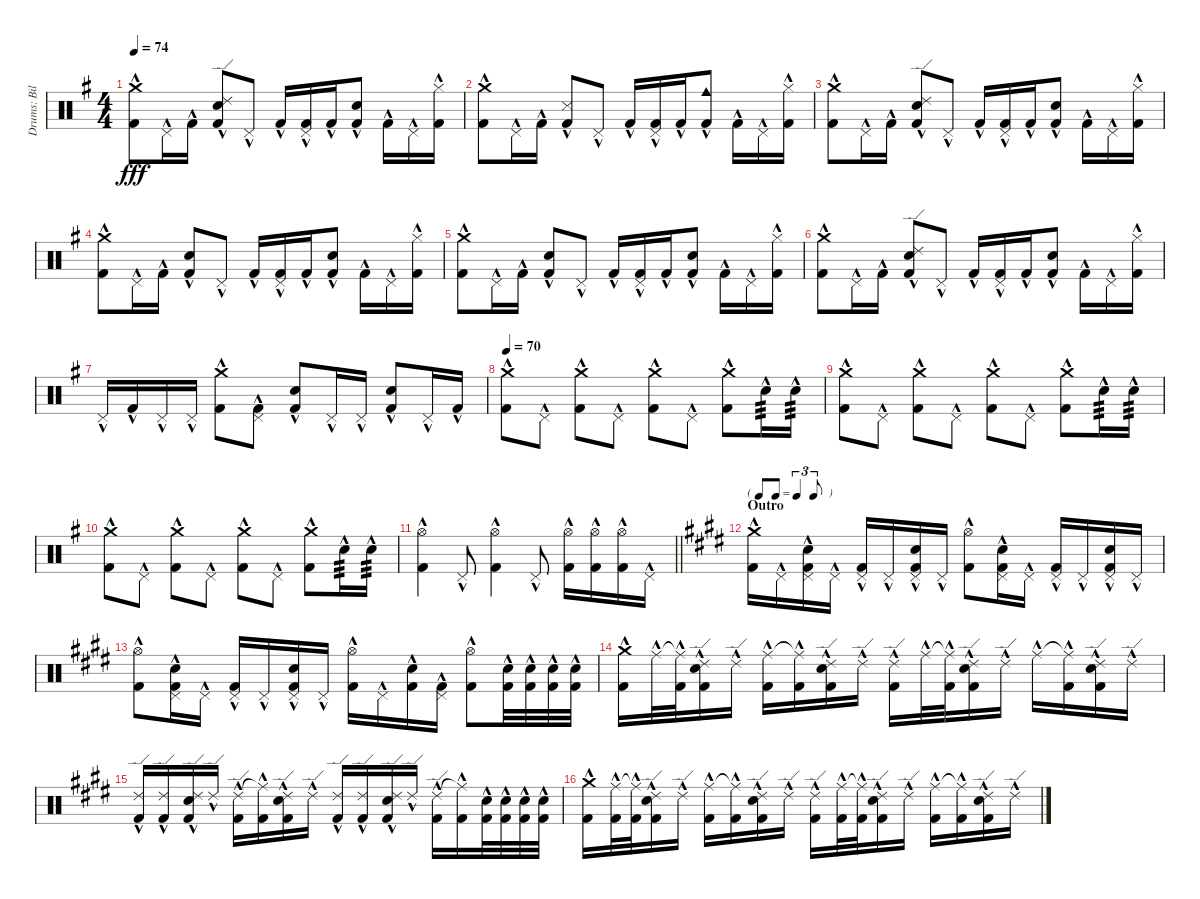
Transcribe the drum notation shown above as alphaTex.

\track ("Drums: Bill" "Drums: Bil") {instrument percussion}
\staff {score}
\articulation defaults
\ts (4 4)
\tempo 74
\clef neutral
\ks g
("Crash medium (hit)"{hac} "Kick (hit) 2"{hac}).8{dy fff} "Pedal Hi-Hat (hit)"{hac}.16 "Kick (hit) 2"{hac}.16 ("Ride (edge) 2" "Snare (hit) 2"{hac} "Kick (hit) 2"{hac}).8 "Pedal Hi-Hat (hit)"{hac}.8 "Kick (hit) 2"{hac}.16 ("Pedal Hi-Hat (hit)"{hac} "Kick (hit) 2"{hac}).16 "Kick (hit) 2"{hac}.16 ("Snare (hit) 2"{hac} "Kick (hit) 2"{hac}).8 "Kick (hit) 2"{hac}.16 "Pedal Hi-Hat (hit)"{hac}.16 ("Hi-Hat (closed)" "Kick (hit) 2"{hac}).16 |
("Crash medium (hit)"{hac} "Kick (hit) 2"{hac}).8 "Pedal Hi-Hat (hit)"{hac}.16 "Kick (hit) 2"{hac}.16 ("Kick (hit) 2"{hac} "Snare (side stick) 3").8 "Pedal Hi-Hat (hit)"{hac}.8 "Kick (hit) 2"{hac}.16 ("Pedal Hi-Hat (hit)"{hac} "Kick (hit) 2"{hac}).16 "Kick (hit) 2"{hac}.16 ("Kick (hit) 2"{hac} "Cowbell medium (hit)").8 "Kick (hit) 2"{hac}.16 "Pedal Hi-Hat (hit)"{hac}.16 ("Hi-Hat (closed)" "Kick (hit) 2"{hac}).16 |
("Crash medium (hit)"{hac} "Kick (hit) 2"{hac}).8 "Pedal Hi-Hat (hit)"{hac}.16 "Kick (hit) 2"{hac}.16 ("Ride (edge) 2" "Snare (hit) 2"{hac} "Kick (hit) 2"{hac}).8 "Pedal Hi-Hat (hit)"{hac}.8 "Kick (hit) 2"{hac}.16 ("Pedal Hi-Hat (hit)"{hac} "Kick (hit) 2"{hac}).16 "Kick (hit) 2"{hac}.16 ("Snare (hit) 2"{hac} "Kick (hit) 2"{hac}).8 "Kick (hit) 2"{hac}.16 "Pedal Hi-Hat (hit)"{hac}.16 ("Hi-Hat (closed)" "Kick (hit) 2"{hac}).16 |
("Crash medium (hit)"{hac} "Kick (hit) 2"{hac}).8 "Pedal Hi-Hat (hit)"{hac}.16 "Kick (hit) 2"{hac}.16 ("Snare (hit) 2"{hac} "Kick (hit) 2"{hac}).8 "Pedal Hi-Hat (hit)"{hac}.8 "Kick (hit) 2"{hac}.16 ("Pedal Hi-Hat (hit)"{hac} "Kick (hit) 2"{hac}).16 "Kick (hit) 2"{hac}.16 ("Snare (hit) 2"{hac} "Kick (hit) 2"{hac}).8 "Kick (hit) 2"{hac}.16 "Pedal Hi-Hat (hit)"{hac}.16 ("Hi-Hat (closed)" "Kick (hit) 2"{hac}).16 |
("Crash medium (hit)"{hac} "Kick (hit) 2"{hac}).8 "Pedal Hi-Hat (hit)"{hac}.16 "Kick (hit) 2"{hac}.16 ("Snare (hit) 2"{hac} "Kick (hit) 2"{hac}).8 "Pedal Hi-Hat (hit)"{hac}.8 "Kick (hit) 2"{hac}.16 ("Pedal Hi-Hat (hit)"{hac} "Kick (hit) 2"{hac}).16 "Kick (hit) 2"{hac}.16 ("Snare (hit) 2"{hac} "Kick (hit) 2"{hac}).8 "Kick (hit) 2"{hac}.16 "Pedal Hi-Hat (hit)"{hac}.16 ("Hi-Hat (closed)" "Kick (hit) 2"{hac}).16 |
("Crash medium (hit)"{hac} "Kick (hit) 2"{hac}).8 "Pedal Hi-Hat (hit)"{hac}.16 "Kick (hit) 2"{hac}.16 ("Ride (edge) 2" "Snare (hit) 2"{hac} "Kick (hit) 2"{hac}).8 "Pedal Hi-Hat (hit)"{hac}.8 "Kick (hit) 2"{hac}.16 ("Pedal Hi-Hat (hit)"{hac} "Kick (hit) 2"{hac}).16 "Kick (hit) 2"{hac}.16 ("Snare (hit) 2"{hac} "Kick (hit) 2"{hac}).8 "Kick (hit) 2"{hac}.16 "Pedal Hi-Hat (hit)"{hac}.16 ("Hi-Hat (closed)" "Kick (hit) 2"{hac}).16 |
"Pedal Hi-Hat (hit)"{hac}.16 "Kick (hit) 2"{hac}.16 "Pedal Hi-Hat (hit)"{hac}.16 "Pedal Hi-Hat (hit)"{hac}.16 ("Crash medium (hit)"{hac} "Kick (hit) 2"{hac}).8 ("Pedal Hi-Hat (hit)"{hac} "Kick (hit) 2"{hac}).8 ("Snare (hit) 2"{hac} "Kick (hit) 2"{hac}).8 "Pedal Hi-Hat (hit)"{hac}.16 "Pedal Hi-Hat (hit)"{hac}.16 ("Snare (hit) 2"{hac} "Kick (hit) 2"{hac}).8 "Pedal Hi-Hat (hit)"{hac}.16 "Kick (hit) 2"{hac}.16 |
\tempo 70
("Crash medium (hit)"{hac} "Kick (hit) 2"{hac}).8 "Pedal Hi-Hat (hit)"{hac}.8 ("Crash medium (hit)"{hac} "Kick (hit) 2"{hac}).8 "Pedal Hi-Hat (hit)"{hac}.8 ("Crash medium (hit)"{hac} "Kick (hit) 2"{hac}).8 "Pedal Hi-Hat (hit)"{hac}.8 ("Crash medium (hit)"{hac} "Kick (hit) 2"{hac}).8 "Snare (hit) 2"{hac}.16{tp 3} "Snare (hit) 2"{hac}.16{tp 3} |
("Crash medium (hit)"{hac} "Kick (hit) 2"{hac}).8 "Pedal Hi-Hat (hit)"{hac}.8 ("Crash medium (hit)"{hac} "Kick (hit) 2"{hac}).8 "Pedal Hi-Hat (hit)"{hac}.8 ("Crash medium (hit)"{hac} "Kick (hit) 2"{hac}).8 "Pedal Hi-Hat (hit)"{hac}.8 ("Crash medium (hit)"{hac} "Kick (hit) 2"{hac}).8 "Snare (hit) 2"{hac}.16{tp 3} "Snare (hit) 2"{hac}.16{tp 3} |
("Crash medium (hit)"{hac} "Kick (hit) 2"{hac}).8 "Pedal Hi-Hat (hit)"{hac}.8 ("Crash medium (hit)"{hac} "Kick (hit) 2"{hac}).8 "Pedal Hi-Hat (hit)"{hac}.8 ("Crash medium (hit)"{hac} "Kick (hit) 2"{hac}).8 "Pedal Hi-Hat (hit)"{hac}.8 ("Crash medium (hit)"{hac} "Kick (hit) 2"{hac}).8 "Snare (hit) 2"{hac}.16{tp 3} "Snare (hit) 2"{hac}.16{tp 3} |
\barLineRight lightlight
("Hi-Hat (open)"{hac} "Kick (hit) 2"{hac}).4 "Pedal Hi-Hat (hit)"{hac}.8 ("Hi-Hat (open)"{hac} "Kick (hit) 2"{hac}).4 "Pedal Hi-Hat (hit)"{hac}.8 ("Hi-Hat (open)"{hac} "Kick (hit) 2"{hac}).16 ("Hi-Hat (open)"{hac} "Kick (hit) 2"{hac}).16 ("Hi-Hat (open)"{hac} "Kick (hit) 2"{hac}).16 "Pedal Hi-Hat (hit)"{hac}.16 |
\tf triplet8th
\section ("" "Outro")
\ks e
("Crash medium (hit)"{hac} "Kick (hit) 2"{hac}).16 "Pedal Hi-Hat (hit)"{hac}.16 ("Pedal Hi-Hat (hit)"{hac} "Snare (hit) 2"{hac} "Kick (hit) 2"{hac}).16 "Pedal Hi-Hat (hit)"{hac}.16 ("Pedal Hi-Hat (hit)"{hac} "Kick (hit) 2"{hac}).16 "Pedal Hi-Hat (hit)"{hac}.16 ("Pedal Hi-Hat (hit)"{hac} "Snare (hit) 2"{hac} "Kick (hit) 2"{hac}).16 "Pedal Hi-Hat (hit)"{hac}.16 ("Hi-Hat (open)"{hac} "Kick (hit) 2"{hac}).8 ("Pedal Hi-Hat (hit)"{hac} "Snare (hit) 2"{hac} "Kick (hit) 2"{hac}).16 "Pedal Hi-Hat (hit)"{hac}.16 ("Pedal Hi-Hat (hit)"{hac} "Kick (hit) 2"{hac}).16 "Pedal Hi-Hat (hit)"{hac}.16 ("Pedal Hi-Hat (hit)"{hac} "Snare (hit) 2"{hac} "Kick (hit) 2"{hac}).16 "Pedal Hi-Hat (hit)"{hac}.16 |
("Hi-Hat (open)"{hac} "Kick (hit) 2"{hac}).8 ("Pedal Hi-Hat (hit)"{hac} "Snare (hit) 2"{hac} "Kick (hit) 2"{hac}).16 "Pedal Hi-Hat (hit)"{hac}.16 ("Pedal Hi-Hat (hit)"{hac} "Kick (hit) 2"{hac}).16 "Pedal Hi-Hat (hit)"{hac}.16 ("Pedal Hi-Hat (hit)"{hac} "Snare (hit) 2"{hac} "Kick (hit) 2"{hac}).16 "Pedal Hi-Hat (hit)"{hac}.16 ("Hi-Hat (open)"{hac} "Kick (hit) 2"{hac}).16 "Pedal Hi-Hat (hit)"{hac}.16 ("Snare (hit) 2"{hac} "Kick (hit) 2"{hac}).16 ("Pedal Hi-Hat (hit)"{hac} "Kick (hit) 2"{hac}).16 ("Hi-Hat (open)"{hac} "Kick (hit) 2"{hac}).8 ("Snare (hit) 2"{hac} "Kick (hit) 2"{hac}).32 ("Snare (hit) 2"{hac} "Kick (hit) 2"{hac}).32 ("Snare (hit) 2"{hac} "Kick (hit) 2"{hac}).32 ("Snare (hit) 2"{hac} "Kick (hit) 2"{hac}).32 |
("Crash medium (hit)"{hac} "Kick (hit) 2"{hac}).16 "Ride (middle)"{hac}.32 ("Ride (middle)"{t} "Kick (hit) 2"{hac}).32 ("Ride (edge) 2"{hac} "Snare (hit) 2"{hac} "Kick (hit) 2"{hac}).16 "Ride (edge) 2"{hac}.16 ("Ride (middle)"{hac} "Kick (hit) 2"{hac}).16 ("Ride (middle)"{t} "Kick (hit) 2"{hac}).16 ("Ride (edge) 2"{hac} "Snare (hit) 2"{hac} "Kick (hit) 2"{hac}).16 "Ride (edge) 2"{hac}.16 ("Ride (edge) 2"{hac} "Kick (hit) 2"{hac}).16 "Ride (middle)"{hac}.32 ("Ride (middle)"{t} "Kick (hit) 2"{hac}).32 ("Ride (edge) 2"{hac} "Snare (hit) 2"{hac} "Kick (hit) 2"{hac}).16 "Ride (edge) 2"{hac}.16 "Ride (middle)"{hac}.16 ("Ride (middle)"{t} "Kick (hit) 2"{hac}).16 ("Ride (edge) 2"{hac} "Snare (hit) 2"{hac} "Kick (hit) 2"{hac}).16 "Ride (edge) 2"{hac}.16 |
("Ride (edge) 2"{hac} "Kick (hit) 2"{hac}).16 ("Ride (edge) 2"{hac} "Kick (hit) 2"{hac}).16 ("Ride (edge) 2"{hac} "Snare (hit) 2"{hac} "Kick (hit) 2"{hac}).16 "Ride (edge) 2"{hac}.16 ("Ride (edge) 2"{hac} "Kick (hit) 2"{hac}).16 ("Ride (middle)"{t} "Kick (hit) 2"{hac}).16 ("Ride (edge) 2"{hac} "Snare (hit) 2"{hac} "Kick (hit) 2"{hac}).16 "Ride (edge) 2"{hac}.16 ("Ride (edge) 2"{hac} "Kick (hit) 2"{hac}).16 ("Ride (edge) 2"{hac} "Kick (hit) 2"{hac}).16 ("Ride (edge) 2"{hac} "Snare (hit) 2"{hac} "Kick (hit) 2"{hac}).16 "Ride (edge) 2"{hac}.16 ("Ride (edge) 2"{hac} "Kick (hit) 2"{hac}).16 ("Ride (middle)"{t} "Kick (hit) 2"{hac}).16 ("Snare (hit) 2"{hac} "Kick (hit) 2"{hac}).32 ("Snare (hit) 2"{hac} "Kick (hit) 2"{hac}).32 ("Snare (hit) 2"{hac} "Kick (hit) 2"{hac}).32 ("Snare (hit) 2"{hac} "Kick (hit) 2"{hac}).32 |
("Crash medium (hit)"{hac} "Kick (hit) 2"{hac}).16 ("Ride (middle)"{hac} "Kick (hit) 2"{hac}).32 ("Ride (middle)"{t} "Kick (hit) 2"{hac}).32 ("Ride (edge) 2"{hac} "Snare (hit) 2"{hac} "Kick (hit) 2"{hac}).16 "Ride (edge) 2"{hac}.16 ("Ride (middle)"{hac} "Kick (hit) 2"{hac}).16 ("Ride (middle)"{t} "Kick (hit) 2"{hac}).16 ("Ride (edge) 2"{hac} "Snare (hit) 2"{hac} "Kick (hit) 2"{hac}).16 "Ride (edge) 2"{hac}.16 ("Ride (edge) 2"{hac} "Kick (hit) 2"{hac}).16 ("Ride (middle)"{hac} "Kick (hit) 2"{hac}).32 ("Ride (middle)"{t} "Kick (hit) 2"{hac}).32 ("Ride (edge) 2"{hac} "Snare (hit) 2"{hac} "Kick (hit) 2"{hac}).16 "Ride (edge) 2"{hac}.16 ("Ride (middle)"{hac} "Kick (hit) 2"{hac}).16 ("Ride (middle)"{t} "Kick (hit) 2"{hac}).16 ("Ride (edge) 2"{hac} "Snare (hit) 2"{hac} "Kick (hit) 2"{hac}).16 "Ride (edge) 2"{hac}.16
